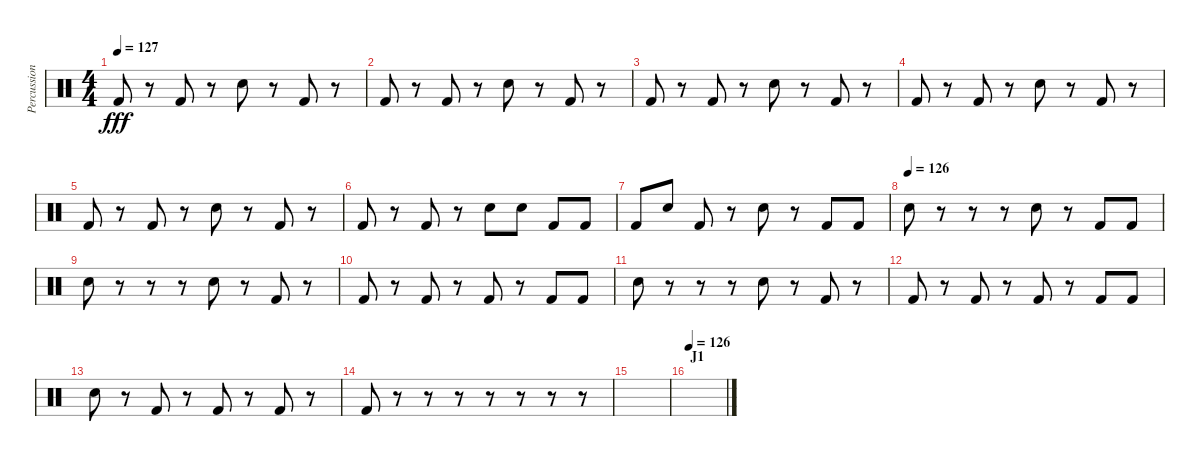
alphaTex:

\track ("Percussion" "Percussion") {instrument percussion}
\staff {score}
\articulation defaults
\ts (4 4)
\tempo 127
\clef neutral
\ks c "Kick (hit) 2".8{dy fff}
r.8 "Kick (hit) 2".8 r.8 "Electric Snare (hit)".8 r.8 "Kick (hit) 2".8 r.8 |
"Kick (hit) 2".8 r.8 "Kick (hit) 2".8 r.8 "Electric Snare (hit)".8 r.8 "Kick (hit) 2".8 r.8 |
"Kick (hit) 2".8 r.8 "Kick (hit) 2".8 r.8 "Electric Snare (hit)".8 r.8 "Kick (hit) 2".8 r.8 |
"Kick (hit) 2".8 r.8 "Kick (hit) 2".8 r.8 "Electric Snare (hit)".8 r.8 "Kick (hit) 2".8 r.8 |
"Kick (hit) 2".8 r.8 "Kick (hit) 2".8 r.8 "Electric Snare (hit)".8 r.8 "Kick (hit) 2".8 r.8 |
"Kick (hit) 2".8 r.8 "Kick (hit) 2".8 r.8 "Electric Snare (hit)".8 "Electric Snare (hit)".8 "Kick (hit) 2".8 "Kick (hit) 2".8 |
"Kick (hit) 2".8 "Electric Snare (hit)".8 "Kick (hit) 2".8 r.8 "Electric Snare (hit)".8 r.8 "Kick (hit) 2".8 "Kick (hit) 2".8 |
\tempo (126)
"Electric Snare (hit)".8 r.8 r.8 r.8 "Electric Snare (hit)".8 r.8 "Kick (hit) 2".8 "Kick (hit) 2".8 |
"Electric Snare (hit)".8 r.8 r.8 r.8 "Electric Snare (hit)".8 r.8 "Kick (hit) 2".8 r.8 |
"Kick (hit) 2".8 r.8 "Kick (hit) 2".8 r.8 "Kick (hit) 2".8 r.8 "Kick (hit) 2".8 "Kick (hit) 2".8 |
"Electric Snare (hit)".8 r.8 r.8 r.8 "Electric Snare (hit)".8 r.8 "Kick (hit) 2".8 r.8 |
"Kick (hit) 2".8 r.8 "Kick (hit) 2".8 r.8 "Kick (hit) 2".8 r.8 "Kick (hit) 2".8 "Kick (hit) 2".8 |
"Electric Snare (hit)".8 r.8 "Kick (hit) 2".8 r.8 "Kick (hit) 2".8 r.8 "Kick (hit) 2".8 r.8 |
"Kick (hit) 2".8 r.8 r.8 r.8 r.8 r.8 r.8 r.8 |
|
\section ("" "J1")
\tempo 126
